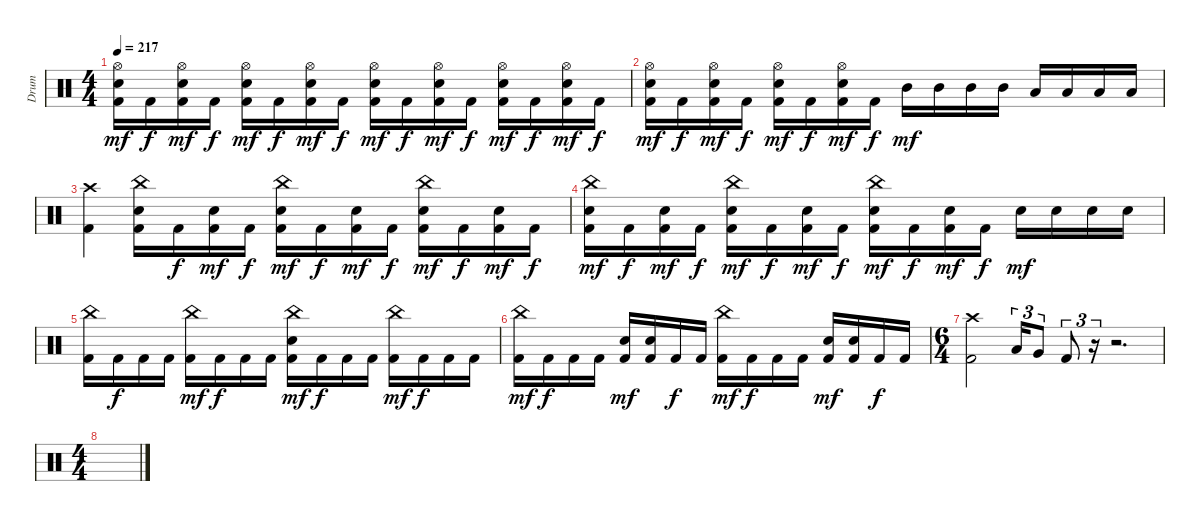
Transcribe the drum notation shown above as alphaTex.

\track ("Drum" "Drum") {instrument percussion}
\staff {score}
\articulation defaults
\ts (4 4)
\tempo 217
\clef neutral
\ks c
("Hi-Hat (open)" "Electric Snare (hit)" "Kick (hit) 2").16{dy mf} "Kick (hit) 2".16{dy f} ("Hi-Hat (open)" "Electric Snare (hit)" "Kick (hit) 2").16{dy mf} "Kick (hit) 2".16{dy f} ("Hi-Hat (open)" "Electric Snare (hit)" "Kick (hit) 2").16{dy mf} "Kick (hit) 2".16{dy f} ("Hi-Hat (open)" "Electric Snare (hit)" "Kick (hit) 2").16{dy mf} "Kick (hit) 2".16{dy f} ("Hi-Hat (open)" "Electric Snare (hit)" "Kick (hit) 2").16{dy mf} "Kick (hit) 2".16{dy f} ("Hi-Hat (open)" "Electric Snare (hit)" "Kick (hit) 2").16{dy mf} "Kick (hit) 2".16{dy f} ("Hi-Hat (open)" "Electric Snare (hit)" "Kick (hit) 2").16{dy mf} "Kick (hit) 2".16{dy f} ("Hi-Hat (open)" "Electric Snare (hit)" "Kick (hit) 2").16{dy mf} "Kick (hit) 2".16{dy f} |
("Hi-Hat (open)" "Electric Snare (hit)" "Kick (hit) 2").16{dy mf} "Kick (hit) 2".16{dy f} ("Hi-Hat (open)" "Electric Snare (hit)" "Kick (hit) 2").16{dy mf} "Kick (hit) 2".16{dy f} ("Hi-Hat (open)" "Electric Snare (hit)" "Kick (hit) 2").16{dy mf} "Kick (hit) 2".16{dy f} ("Hi-Hat (open)" "Electric Snare (hit)" "Kick (hit) 2").16{dy mf} "Kick (hit) 2".16{dy f} "Mid Tom (hit)".16{dy mf} "Mid Tom (hit)".16 "Mid Tom (hit)".16 "Mid Tom (hit)".16 "Low Tom (hit)".16 "Low Tom (hit)".16 "Low Tom (hit)".16 "Low Tom (hit)".16 |
("Crash high (hit)" "Kick (hit) 2").4 ("China (hit)" "Electric Snare (hit)" "Kick (hit) 2").16 "Kick (hit) 2".16{dy f} ("Electric Snare (hit)" "Kick (hit) 2").16{dy mf} "Kick (hit) 2".16{dy f} ("China (hit)" "Electric Snare (hit)" "Kick (hit) 2").16{dy mf} "Kick (hit) 2".16{dy f} ("Electric Snare (hit)" "Kick (hit) 2").16{dy mf} "Kick (hit) 2".16{dy f} ("China (hit)" "Electric Snare (hit)" "Kick (hit) 2").16{dy mf} "Kick (hit) 2".16{dy f} ("Electric Snare (hit)" "Kick (hit) 2").16{dy mf} "Kick (hit) 2".16{dy f} |
("China (hit)" "Electric Snare (hit)" "Kick (hit) 2").16{dy mf} "Kick (hit) 2".16{dy f} ("Electric Snare (hit)" "Kick (hit) 2").16{dy mf} "Kick (hit) 2".16{dy f} ("China (hit)" "Electric Snare (hit)" "Kick (hit) 2").16{dy mf} "Kick (hit) 2".16{dy f} ("Electric Snare (hit)" "Kick (hit) 2").16{dy mf} "Kick (hit) 2".16{dy f} ("China (hit)" "Electric Snare (hit)" "Kick (hit) 2").16{dy mf} "Kick (hit) 2".16{dy f} ("Electric Snare (hit)" "Kick (hit) 2").16{dy mf} "Kick (hit) 2".16{dy f} "Electric Snare (hit)".16{dy mf} "Electric Snare (hit)".16 "Electric Snare (hit)".16 "Electric Snare (hit)".16 |
("China (hit)" "Kick (hit) 2").16 "Kick (hit) 2".16{dy f} "Kick (hit) 2".16 "Kick (hit) 2".16 ("China (hit)" "Kick (hit) 2").16{dy mf} "Kick (hit) 2".16{dy f} "Kick (hit) 2".16 "Kick (hit) 2".16 ("China (hit)" "Electric Snare (hit)" "Kick (hit) 2").16{dy mf} "Kick (hit) 2".16{dy f} "Kick (hit) 2".16 "Kick (hit) 2".16 ("China (hit)" "Kick (hit) 2").16{dy mf} "Kick (hit) 2".16{dy f} "Kick (hit) 2".16 "Kick (hit) 2".16 |
("China (hit)" "Kick (hit) 2").16{dy mf} "Kick (hit) 2".16{dy f} "Kick (hit) 2".16 "Kick (hit) 2".16 ("Electric Snare (hit)" "Kick (hit) 2").16{dy mf} ("Electric Snare (hit)" "Kick (hit) 2").16 "Kick (hit) 2".16{dy f} "Kick (hit) 2".16 ("China (hit)" "Kick (hit) 2").16{dy mf} "Kick (hit) 2".16{dy f} "Kick (hit) 2".16 "Kick (hit) 2".16 ("Electric Snare (hit)" "Kick (hit) 2").16{dy mf} ("Electric Snare (hit)" "Kick (hit) 2").16 "Kick (hit) 2".16{dy f} "Kick (hit) 2".16 |
\ts (6 4)
("Crash high (hit)" "Kick (hit) 2").2 "Low Tom (hit)".16{tu (3 2)} "Very Low Tom (hit)".8{tu (3 2)} "Kick (hit) 2".8{tu (3 2)} r.16{tu (3 2)} r.2{d} |
\ts (4 4)
